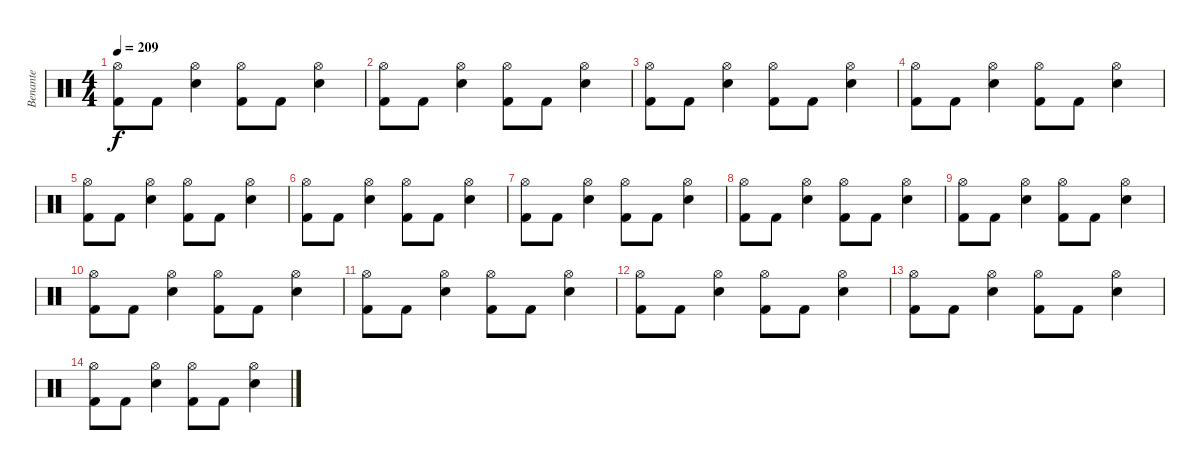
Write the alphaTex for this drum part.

\track ("Benante" "Benante") {solo instrument percussion}
\staff {score}
\articulation defaults
\ts (4 4)
\tempo 209
\clef neutral
\ks c
("Kick (hit) 2" "Hi-Hat (open)").8{dy f} "Kick (hit) 2".8 ("Electric Snare (hit)" "Hi-Hat (open)").4 ("Kick (hit) 2" "Hi-Hat (open)").8 "Kick (hit) 2".8 ("Electric Snare (hit)" "Hi-Hat (open)").4 |
("Kick (hit) 2" "Hi-Hat (open)").8 "Kick (hit) 2".8 ("Electric Snare (hit)" "Hi-Hat (open)").4 ("Kick (hit) 2" "Hi-Hat (open)").8 "Kick (hit) 2".8 ("Electric Snare (hit)" "Hi-Hat (open)").4 |
("Kick (hit) 2" "Hi-Hat (open)").8 "Kick (hit) 2".8 ("Electric Snare (hit)" "Hi-Hat (open)").4 ("Kick (hit) 2" "Hi-Hat (open)").8 "Kick (hit) 2".8 ("Electric Snare (hit)" "Hi-Hat (open)").4 |
("Kick (hit) 2" "Hi-Hat (open)").8 "Kick (hit) 2".8 ("Electric Snare (hit)" "Hi-Hat (open)").4 ("Kick (hit) 2" "Hi-Hat (open)").8 "Kick (hit) 2".8 ("Electric Snare (hit)" "Hi-Hat (open)").4 |
("Kick (hit) 2" "Hi-Hat (open)").8 "Kick (hit) 2".8 ("Electric Snare (hit)" "Hi-Hat (open)").4 ("Kick (hit) 2" "Hi-Hat (open)").8 "Kick (hit) 2".8 ("Electric Snare (hit)" "Hi-Hat (open)").4 |
("Kick (hit) 2" "Hi-Hat (open)").8 "Kick (hit) 2".8 ("Electric Snare (hit)" "Hi-Hat (open)").4 ("Kick (hit) 2" "Hi-Hat (open)").8 "Kick (hit) 2".8 ("Electric Snare (hit)" "Hi-Hat (open)").4 |
("Kick (hit) 2" "Hi-Hat (open)").8 "Kick (hit) 2".8 ("Electric Snare (hit)" "Hi-Hat (open)").4 ("Kick (hit) 2" "Hi-Hat (open)").8 "Kick (hit) 2".8 ("Electric Snare (hit)" "Hi-Hat (open)").4 |
("Kick (hit) 2" "Hi-Hat (open)").8 "Kick (hit) 2".8 ("Electric Snare (hit)" "Hi-Hat (open)").4 ("Kick (hit) 2" "Hi-Hat (open)").8 "Kick (hit) 2".8 ("Electric Snare (hit)" "Hi-Hat (open)").4 |
("Kick (hit) 2" "Hi-Hat (open)").8 "Kick (hit) 2".8 ("Electric Snare (hit)" "Hi-Hat (open)").4 ("Kick (hit) 2" "Hi-Hat (open)").8 "Kick (hit) 2".8 ("Electric Snare (hit)" "Hi-Hat (open)").4 |
("Kick (hit) 2" "Hi-Hat (open)").8 "Kick (hit) 2".8 ("Electric Snare (hit)" "Hi-Hat (open)").4 ("Kick (hit) 2" "Hi-Hat (open)").8 "Kick (hit) 2".8 ("Electric Snare (hit)" "Hi-Hat (open)").4 |
("Kick (hit) 2" "Hi-Hat (open)").8 "Kick (hit) 2".8 ("Electric Snare (hit)" "Hi-Hat (open)").4 ("Kick (hit) 2" "Hi-Hat (open)").8 "Kick (hit) 2".8 ("Electric Snare (hit)" "Hi-Hat (open)").4 |
("Kick (hit) 2" "Hi-Hat (open)").8 "Kick (hit) 2".8 ("Electric Snare (hit)" "Hi-Hat (open)").4 ("Kick (hit) 2" "Hi-Hat (open)").8 "Kick (hit) 2".8 ("Electric Snare (hit)" "Hi-Hat (open)").4 |
("Kick (hit) 2" "Hi-Hat (open)").8 "Kick (hit) 2".8 ("Electric Snare (hit)" "Hi-Hat (open)").4 ("Kick (hit) 2" "Hi-Hat (open)").8 "Kick (hit) 2".8 ("Electric Snare (hit)" "Hi-Hat (open)").4 |
("Kick (hit) 2" "Hi-Hat (open)").8 "Kick (hit) 2".8 ("Electric Snare (hit)" "Hi-Hat (open)").4 ("Kick (hit) 2" "Hi-Hat (open)").8 "Kick (hit) 2".8 ("Electric Snare (hit)" "Hi-Hat (open)").4
